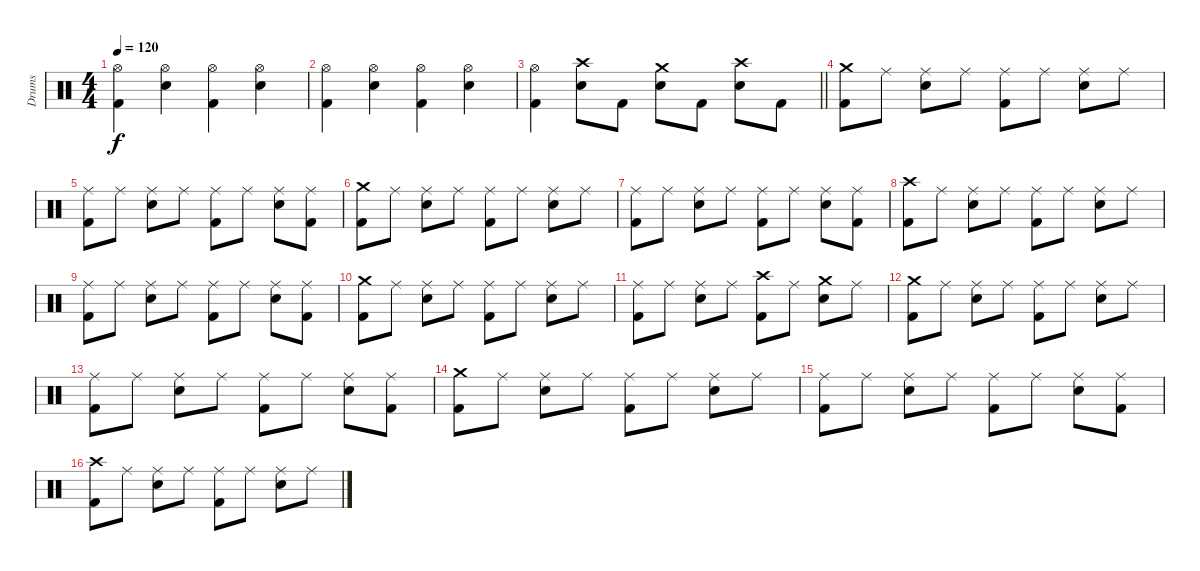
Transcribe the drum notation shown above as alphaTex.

\track ("Drums" "Drums") {instrument percussion}
\staff {score}
\articulation defaults
\ts (4 4)
\tempo 120
\clef neutral
\ks c
("Kick (hit) 2" "Hi-Hat (open)").4{dy f} ("Snare (hit) 2" "Hi-Hat (open)").4 ("Kick (hit) 2" "Hi-Hat (open)").4 ("Snare (hit) 2" "Hi-Hat (open)").4 |
("Kick (hit) 2" "Hi-Hat (open)").4 ("Snare (hit) 2" "Hi-Hat (open)").4 ("Kick (hit) 2" "Hi-Hat (open)").4 ("Snare (hit) 2" "Hi-Hat (open)").4 |
\barLineRight lightlight
("Kick (hit) 2" "Hi-Hat (open)").4 ("Snare (hit) 2" "Crash high (hit)").8 "Kick (hit) 2".8 ("Snare (hit) 2" "Crash medium (hit)").8 "Kick (hit) 2".8 ("Snare (hit) 2" "Crash high (hit)").8 "Kick (hit) 2".8 |
("Kick (hit) 2" "Crash medium (hit)").8 "Ride (middle)".8 ("Snare (hit) 2" "Ride (middle)").8 "Ride (middle)".8 ("Kick (hit) 2" "Ride (middle)").8 "Ride (middle)".8 ("Snare (hit) 2" "Ride (middle)").8 "Ride (middle)".8 |
("Kick (hit) 2" "Ride (middle)").8 "Ride (middle)".8 ("Snare (hit) 2" "Ride (middle)").8 "Ride (middle)".8 ("Kick (hit) 2" "Ride (middle)").8 "Ride (middle)".8 ("Snare (hit) 2" "Ride (middle)").8 ("Kick (hit) 2" "Ride (middle)").8 |
("Kick (hit) 2" "Crash medium (hit)").8 "Ride (middle)".8 ("Snare (hit) 2" "Ride (middle)").8 "Ride (middle)".8 ("Kick (hit) 2" "Ride (middle)").8 "Ride (middle)".8 ("Snare (hit) 2" "Ride (middle)").8 "Ride (middle)".8 |
("Kick (hit) 2" "Ride (middle)").8 "Ride (middle)".8 ("Snare (hit) 2" "Ride (middle)").8 "Ride (middle)".8 ("Kick (hit) 2" "Ride (middle)").8 "Ride (middle)".8 ("Snare (hit) 2" "Ride (middle)").8 ("Kick (hit) 2" "Ride (middle)").8 |
("Kick (hit) 2" "Crash high (hit)").8 "Ride (middle)".8 ("Snare (hit) 2" "Ride (middle)").8 "Ride (middle)".8 ("Kick (hit) 2" "Ride (middle)").8 "Ride (middle)".8 ("Snare (hit) 2" "Ride (middle)").8 "Ride (middle)".8 |
("Kick (hit) 2" "Ride (middle)").8 "Ride (middle)".8 ("Snare (hit) 2" "Ride (middle)").8 "Ride (middle)".8 ("Kick (hit) 2" "Ride (middle)").8 "Ride (middle)".8 ("Snare (hit) 2" "Ride (middle)").8 ("Kick (hit) 2" "Ride (middle)").8 |
("Kick (hit) 2" "Crash medium (hit)").8 "Ride (middle)".8 ("Snare (hit) 2" "Ride (middle)").8 "Ride (middle)".8 ("Kick (hit) 2" "Ride (middle)").8 "Ride (middle)".8 ("Snare (hit) 2" "Ride (middle)").8 "Ride (middle)".8 |
("Kick (hit) 2" "Ride (middle)").8 "Ride (middle)".8 ("Snare (hit) 2" "Ride (middle)").8 "Ride (middle)".8 ("Kick (hit) 2" "Crash high (hit)").8 "Ride (middle)".8 ("Snare (hit) 2" "Crash medium (hit)").8 "Ride (middle)".8 |
("Kick (hit) 2" "Crash medium (hit)").8 "Ride (middle)".8 ("Snare (hit) 2" "Ride (middle)").8 "Ride (middle)".8 ("Kick (hit) 2" "Ride (middle)").8 "Ride (middle)".8 ("Snare (hit) 2" "Ride (middle)").8 "Ride (middle)".8 |
("Kick (hit) 2" "Ride (middle)").8 "Ride (middle)".8 ("Snare (hit) 2" "Ride (middle)").8 "Ride (middle)".8 ("Kick (hit) 2" "Ride (middle)").8 "Ride (middle)".8 ("Snare (hit) 2" "Ride (middle)").8 ("Kick (hit) 2" "Ride (middle)").8 |
("Kick (hit) 2" "Crash medium (hit)").8 "Ride (middle)".8 ("Snare (hit) 2" "Ride (middle)").8 "Ride (middle)".8 ("Kick (hit) 2" "Ride (middle)").8 "Ride (middle)".8 ("Snare (hit) 2" "Ride (middle)").8 "Ride (middle)".8 |
("Kick (hit) 2" "Ride (middle)").8 "Ride (middle)".8 ("Snare (hit) 2" "Ride (middle)").8 "Ride (middle)".8 ("Kick (hit) 2" "Ride (middle)").8 "Ride (middle)".8 ("Snare (hit) 2" "Ride (middle)").8 ("Kick (hit) 2" "Ride (middle)").8 |
("Kick (hit) 2" "Crash high (hit)").8 "Ride (middle)".8 ("Snare (hit) 2" "Ride (middle)").8 "Ride (middle)".8 ("Kick (hit) 2" "Ride (middle)").8 "Ride (middle)".8 ("Snare (hit) 2" "Ride (middle)").8 "Ride (middle)".8
